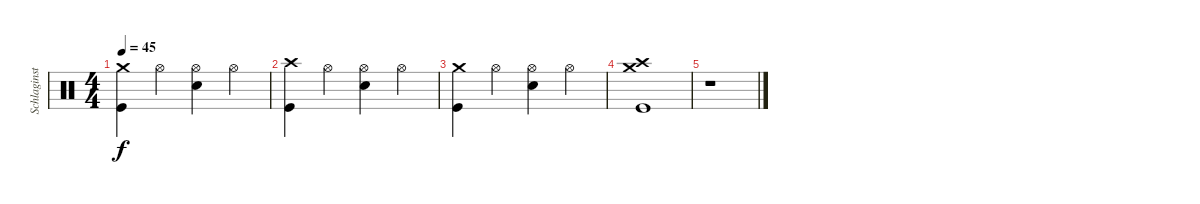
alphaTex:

\track ("Schlaginstrumente - Auswahl" "Schlaginst") {instrument percussion}
\staff {score}
\articulation defaults
\ts (4 4)
\tempo 45
\clef neutral
\ks c
("Crash medium (hit)" "Kick (hit)").4{dy f} "Hi-Hat (open)".4 ("Hi-Hat (open)" "Snare (hit) 2").4 "Hi-Hat (open)".4 |
("Crash high (hit)" "Kick (hit)").4 "Hi-Hat (open)".4 ("Hi-Hat (open)" "Snare (hit) 2").4 "Hi-Hat (open)".4 |
("Crash medium (hit)" "Kick (hit)").4 "Hi-Hat (open)".4 ("Hi-Hat (open)" "Snare (hit) 2").4 "Hi-Hat (open)".4 |
("Crash medium (hit)" "Crash high (hit)" "Kick (hit)").1 |
r.1
